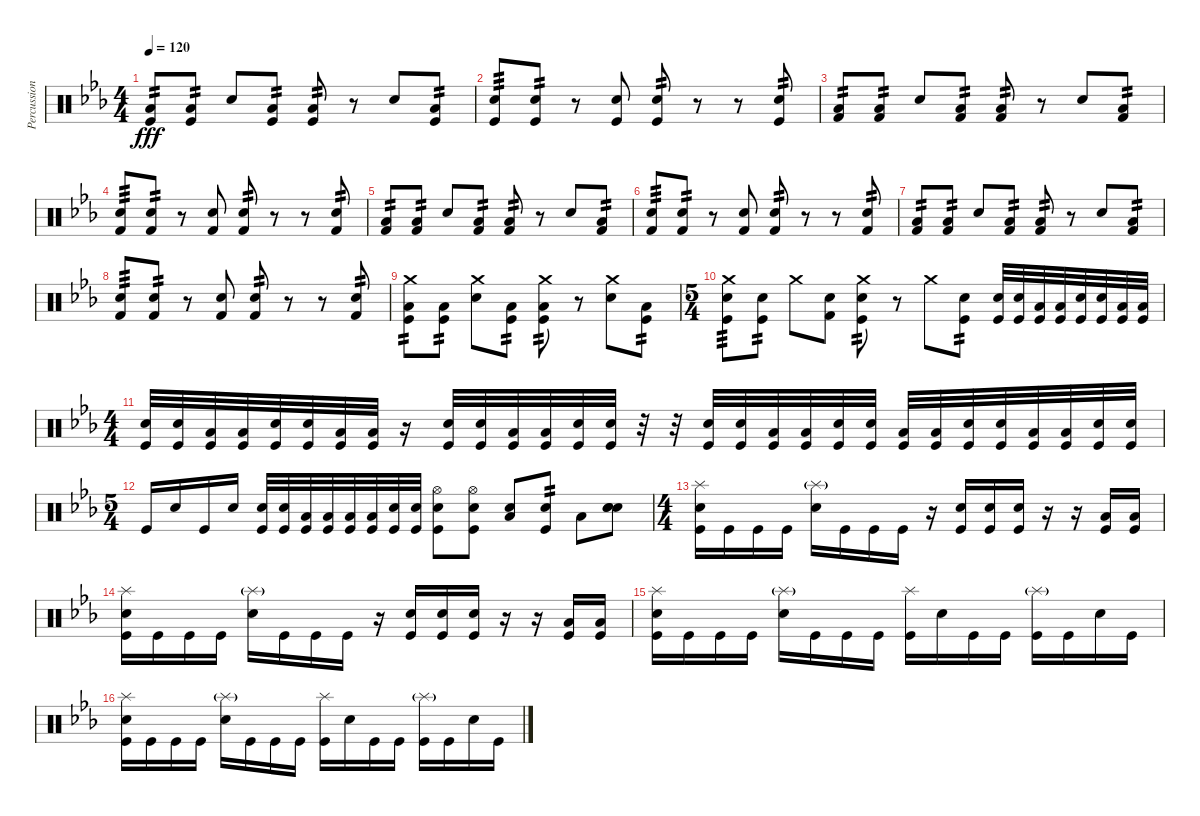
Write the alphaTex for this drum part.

\track ("Percussion" "Percussion") {instrument percussion}
\staff {score}
\articulation defaults
\ts (4 4)
\tempo 120
\clef neutral
\ks cminor
("Low Floor Tom (hit)" "Kick (hit)").8{tp 2 dy fff} ("Low Floor Tom (hit)" "Kick (hit)").8{tp 2} "Snare (hit) 2".8 ("Low Floor Tom (hit)" "Kick (hit)").8{tp 2} ("Low Floor Tom (hit)" "Kick (hit)").8{tp 2} r.8 "Snare (hit) 2".8 ("Low Floor Tom (hit)" "Kick (hit)").8{tp 2} |
("Snare (hit) 2" "Kick (hit)").8{tp 3} ("Snare (hit) 2" "Kick (hit)").8{tp 2} r.8 ("Snare (hit) 2" "Kick (hit)").8 ("Snare (hit) 2" "Kick (hit)").8{tp 2} r.8 r.8 ("Snare (hit) 2" "Kick (hit)").8{tp 2} |
("Low Floor Tom (hit)" "Kick (hit) 2").8{tp 2} ("Low Floor Tom (hit)" "Kick (hit) 2").8{tp 2} "Hand Clap (hit)".8 ("Low Floor Tom (hit)" "Kick (hit) 2").8{tp 2} ("Low Floor Tom (hit)" "Kick (hit) 2").8{tp 2} r.8 "Hand Clap (hit)".8 ("Low Floor Tom (hit)" "Kick (hit) 2").8{tp 2} |
("Electric Snare (hit)" "Kick (hit) 2").8{tp 3} ("Electric Snare (hit)" "Kick (hit) 2").8{tp 2} r.8 ("Electric Snare (hit)" "Kick (hit) 2").8 ("Electric Snare (hit)" "Kick (hit) 2").8{tp 2} r.8 r.8 ("Electric Snare (hit)" "Kick (hit) 2").8{tp 2} |
("Low Floor Tom (hit)" "Kick (hit) 2").8{tp 2} ("Low Floor Tom (hit)" "Kick (hit) 2").8{tp 2} "Hand Clap (hit)".8 ("Low Floor Tom (hit)" "Kick (hit) 2").8{tp 2} ("Low Floor Tom (hit)" "Kick (hit) 2").8{tp 2} r.8 "Hand Clap (hit)".8 ("Low Floor Tom (hit)" "Kick (hit) 2").8{tp 2} |
("Electric Snare (hit)" "Kick (hit) 2").8{tp 3} ("Electric Snare (hit)" "Kick (hit) 2").8{tp 2} r.8 ("Electric Snare (hit)" "Kick (hit) 2").8 ("Electric Snare (hit)" "Kick (hit) 2").8{tp 2} r.8 r.8 ("Electric Snare (hit)" "Kick (hit) 2").8{tp 2} |
("Low Floor Tom (hit)" "Kick (hit) 2").8{tp 2} ("Low Floor Tom (hit)" "Kick (hit) 2").8{tp 2} "Hand Clap (hit)".8 ("Low Floor Tom (hit)" "Kick (hit) 2").8{tp 2} ("Low Floor Tom (hit)" "Kick (hit) 2").8{tp 2} r.8 "Hand Clap (hit)".8 ("Low Floor Tom (hit)" "Kick (hit) 2").8{tp 2} |
("Electric Snare (hit)" "Kick (hit) 2").8{tp 3} ("Electric Snare (hit)" "Kick (hit) 2").8{tp 2} r.8 ("Electric Snare (hit)" "Kick (hit) 2").8 ("Electric Snare (hit)" "Kick (hit) 2").8{tp 2} r.8 r.8 ("Electric Snare (hit)" "Kick (hit) 2").8{tp 2} |
("Crash medium (hit)" "Low Floor Tom (hit)" "Kick (hit)").8{tp 2} ("Low Floor Tom (hit)" "Kick (hit)").8{tp 2} ("Crash medium (hit)" "Snare (hit) 2").8 ("Low Floor Tom (hit)" "Kick (hit)").8{tp 2} ("Crash medium (hit)" "Low Floor Tom (hit)" "Kick (hit)").8{tp 2} r.8 ("Crash medium (hit)" "Snare (hit) 2").8 ("Low Floor Tom (hit)" "Kick (hit)").8{tp 2} |
\ts (5 4)
("Crash medium (hit)" "Snare (hit) 2" "Kick (hit)").8{tp 3} ("Snare (hit) 2" "Kick (hit)").8{tp 2} "Crash medium (hit)".8 ("Snare (hit) 2" "Kick (hit) 2").8 ("Crash medium (hit)" "Snare (hit) 2" "Kick (hit)").8{tp 2} r.8 "Crash medium (hit)".8 ("Snare (hit) 2" "Kick (hit)").8{tp 2} ("Snare (hit) 2" "Kick (hit)").32 ("Snare (hit) 2" "Kick (hit)").32 ("Low Floor Tom (hit)" "Kick (hit)").32 ("Low Floor Tom (hit)" "Kick (hit)").32 ("Snare (hit) 2" "Kick (hit)").32 ("Snare (hit) 2" "Kick (hit)").32 ("Low Floor Tom (hit)" "Kick (hit)").32 ("Low Floor Tom (hit)" "Kick (hit)").32 |
\ts (4 4)
("Snare (hit) 2" "Kick (hit)").32 ("Snare (hit) 2" "Kick (hit)").32 ("Low Floor Tom (hit)" "Kick (hit)").32 ("Low Floor Tom (hit)" "Kick (hit)").32 ("Snare (hit) 2" "Kick (hit)").32 ("Snare (hit) 2" "Kick (hit)").32 ("Low Floor Tom (hit)" "Kick (hit)").32 ("Low Floor Tom (hit)" "Kick (hit)").32 r.16 ("Snare (hit) 2" "Kick (hit)").32 ("Snare (hit) 2" "Kick (hit)").32 ("Low Floor Tom (hit)" "Kick (hit)").32 ("Low Floor Tom (hit)" "Kick (hit)").32 ("Snare (hit) 2" "Kick (hit)").32 ("Snare (hit) 2" "Kick (hit)").32 r.32 r.32 ("Snare (hit) 2" "Kick (hit)").32 ("Snare (hit) 2" "Kick (hit)").32 ("Low Floor Tom (hit)" "Kick (hit)").32 ("Low Floor Tom (hit)" "Kick (hit)").32 ("Snare (hit) 2" "Kick (hit)").32 ("Snare (hit) 2" "Kick (hit)").32 ("Low Floor Tom (hit)" "Kick (hit)").32 ("Low Floor Tom (hit)" "Kick (hit)").32 ("Snare (hit) 2" "Kick (hit)").32 ("Snare (hit) 2" "Kick (hit)").32 ("Low Floor Tom (hit)" "Kick (hit)").32 ("Low Floor Tom (hit)" "Kick (hit)").32 ("Snare (hit) 2" "Kick (hit)").32 ("Snare (hit) 2" "Kick (hit)").32 |
\ts (5 4)
"Kick (hit)".16 "Snare (hit) 2".16 "Kick (hit)".16 "Snare (hit) 2".16 ("Snare (hit) 2" "Kick (hit)").32 ("Snare (hit) 2" "Kick (hit)").32 ("Low Floor Tom (hit)" "Kick (hit)").32 ("Low Floor Tom (hit)" "Kick (hit)").32 ("Low Tom (hit)" "Kick (hit)").32 ("Low Tom (hit)" "Kick (hit)").32 ("Snare (hit) 2" "Kick (hit)").32 ("Snare (hit) 2" "Kick (hit)").32 ("Hi-Hat (open)" "Snare (hit) 2" "Kick (hit)").8 ("Hi-Hat (open)" "Snare (hit) 2" "Kick (hit)").8 ("Snare (hit) 2" "Low Floor Tom (hit)").8 ("Snare (hit) 2" "Kick (hit)").8{tp 2} "Low Floor Tom (hit)".8 ("Snare (hit) 2" "Snare (hit) 2" "Snare (hit) 2").8 |
\ts (4 4)
("Splash (hit)" "Snare (hit) 2" "Kick (hit)").16 "Kick (hit)".16 "Kick (hit)".16 "Kick (hit)".16 ("Splash (hit)"{g} "Snare (hit) 2").16 "Kick (hit)".16 "Kick (hit)".16 "Kick (hit)".16 r.16 ("Snare (hit) 2" "Kick (hit)").16 ("Snare (hit) 2" "Kick (hit)").16 ("Snare (hit) 2" "Kick (hit)").16 r.16 r.16 ("Kick (hit)" "Low Floor Tom (hit)").16 ("Kick (hit)" "Low Floor Tom (hit)").16 |
("Splash (hit)" "Snare (hit) 2" "Kick (hit)").16 "Kick (hit)".16 "Kick (hit)".16 "Kick (hit)".16 ("Splash (hit)"{g} "Snare (hit) 2").16 "Kick (hit)".16 "Kick (hit)".16 "Kick (hit)".16 r.16 ("Snare (hit) 2" "Kick (hit)").16 ("Snare (hit) 2" "Kick (hit)").16 ("Snare (hit) 2" "Kick (hit)").16 r.16 r.16 ("Kick (hit)" "Low Floor Tom (hit)").16 ("Kick (hit)" "Low Floor Tom (hit)").16 |
("Splash (hit)" "Snare (hit) 2" "Kick (hit)").16 "Kick (hit)".16 "Kick (hit)".16 "Kick (hit)".16 ("Splash (hit)"{g} "Snare (hit) 2").16 "Kick (hit)".16 "Kick (hit)".16 "Kick (hit)".16 ("Splash (hit)" "Kick (hit)").16 "Snare (hit) 2".16 "Kick (hit)".16 "Kick (hit)".16 ("Splash (hit)"{g} "Kick (hit)").16 "Kick (hit)".16 "Snare (hit) 2".16 "Kick (hit)".16 |
("Splash (hit)" "Snare (hit) 2" "Kick (hit)").16 "Kick (hit)".16 "Kick (hit)".16 "Kick (hit)".16 ("Splash (hit)"{g} "Snare (hit) 2").16 "Kick (hit)".16 "Kick (hit)".16 "Kick (hit)".16 ("Splash (hit)" "Kick (hit)").16 "Snare (hit) 2".16 "Kick (hit)".16 "Kick (hit)".16 ("Splash (hit)"{g} "Kick (hit)").16 "Kick (hit)".16 "Snare (hit) 2".16 "Kick (hit)".16
